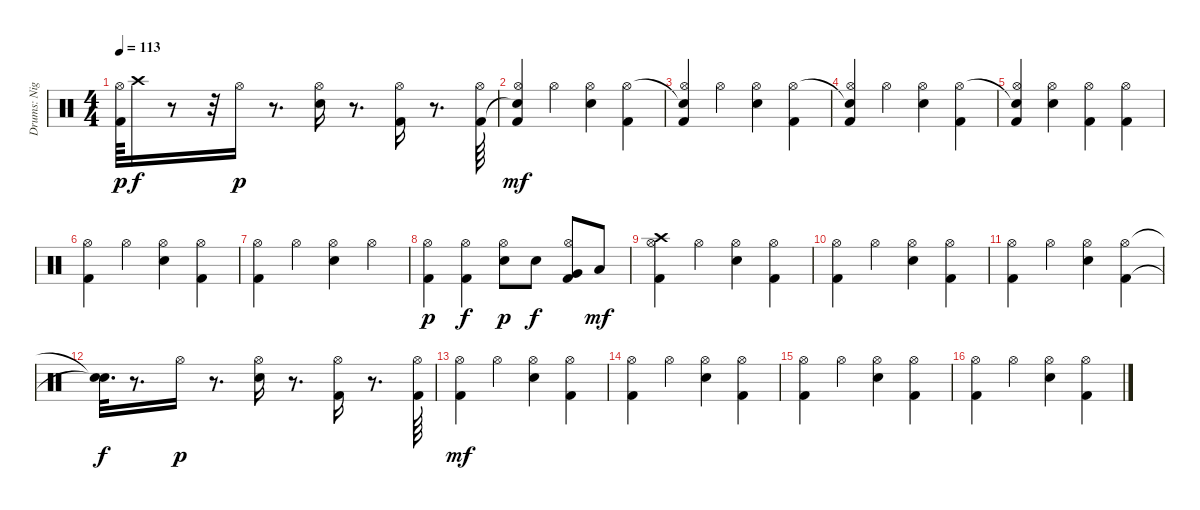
\track ("Drums: Nigel Olsson" "Drums: Nig") {instrument percussion}
\staff {score}
\articulation defaults
\ts (4 4)
\tempo 113
\clef neutral
\ks c
("Kick (hit) 2" "Hi-Hat (open)").64{dy p} "Crash high (hit)".16{dy f} r.8 r.32 "Hi-Hat (open)".16{dy p} r.8{d} ("Snare (hit) 2" "Hi-Hat (open)").16 r.8{d} ("Kick (hit) 2" "Hi-Hat (open)").16 r.8{d} ("Kick (hit) 2" "Hi-Hat (open)").64 |
("Snare (hit)"{t} "Hi-Hat (open)" "Kick (hit) 2").4{dy mf} "Hi-Hat (open)".4 ("Hi-Hat (open)" "Snare (hit) 2").4 ("Hi-Hat (open)" "Kick (hit) 2").4 |
("Snare (hit)"{t} "Hi-Hat (open)" "Kick (hit) 2").4 "Hi-Hat (open)".4 ("Hi-Hat (open)" "Snare (hit) 2").4 ("Hi-Hat (open)" "Kick (hit) 2").4 |
("Snare (hit)"{t} "Hi-Hat (open)" "Kick (hit) 2").4 "Hi-Hat (open)".4 ("Hi-Hat (open)" "Snare (hit) 2").4 ("Hi-Hat (open)" "Kick (hit) 2").4 |
("Snare (hit)"{t} "Hi-Hat (open)" "Kick (hit) 2").4 ("Hi-Hat (open)" "Snare (hit) 2").4 ("Hi-Hat (open)" "Kick (hit) 2").4 ("Hi-Hat (open)" "Kick (hit) 2").4 |
("Hi-Hat (open)" "Kick (hit) 2").4 "Hi-Hat (open)".4 ("Hi-Hat (open)" "Snare (hit) 2").4 ("Hi-Hat (open)" "Kick (hit) 2").4 |
("Hi-Hat (open)" "Kick (hit) 2").4 "Hi-Hat (open)".4 ("Hi-Hat (open)" "Snare (hit) 2").4 "Hi-Hat (open)".4 |
("Kick (hit) 2" "Hi-Hat (open)").4{dy p} ("Kick (hit) 2" "Hi-Hat (open)").4{dy f} ("Snare (hit) 2" "Hi-Hat (open)").8{dy p} "Snare (hit) 2".8{dy f} ("Kick (hit) 2" "Hi-Hat (open)" "Very Low Tom (hit)").8 "Low Floor Tom (hit)".8{dy mf} |
("Crash high (hit)" "Hi-Hat (open)" "Kick (hit) 2").4 "Hi-Hat (open)".4 ("Hi-Hat (open)" "Snare (hit) 2").4 ("Hi-Hat (open)" "Kick (hit) 2").4 |
("Hi-Hat (open)" "Kick (hit) 2").4 "Hi-Hat (open)".4 ("Hi-Hat (open)" "Snare (hit) 2").4 ("Hi-Hat (open)" "Kick (hit) 2").4 |
("Hi-Hat (open)" "Kick (hit) 2").4 "Hi-Hat (open)".4 ("Hi-Hat (open)" "Snare (hit) 2").4 ("Hi-Hat (open)" "Kick (hit) 2").4 |
("Snare (hit)"{t} "Snare (hit)"{t}).32{d dy f} r.8{d} "Hi-Hat (open)".16{dy p} r.8{d} ("Snare (hit) 2" "Hi-Hat (open)").16 r.8{d} ("Kick (hit) 2" "Hi-Hat (open)").16 r.8{d} ("Kick (hit) 2" "Hi-Hat (open)").64 |
("Hi-Hat (open)" "Kick (hit) 2").4{dy mf} "Hi-Hat (open)".4 ("Hi-Hat (open)" "Snare (hit) 2").4 ("Hi-Hat (open)" "Kick (hit) 2").4 |
("Hi-Hat (open)" "Kick (hit) 2").4 "Hi-Hat (open)".4 ("Hi-Hat (open)" "Snare (hit) 2").4 ("Hi-Hat (open)" "Kick (hit) 2").4 |
("Hi-Hat (open)" "Kick (hit) 2").4 "Hi-Hat (open)".4 ("Hi-Hat (open)" "Snare (hit) 2").4 ("Hi-Hat (open)" "Kick (hit) 2").4 |
("Hi-Hat (open)" "Kick (hit) 2").4 "Hi-Hat (open)".4 ("Hi-Hat (open)" "Snare (hit) 2").4 ("Hi-Hat (open)" "Kick (hit) 2").4
